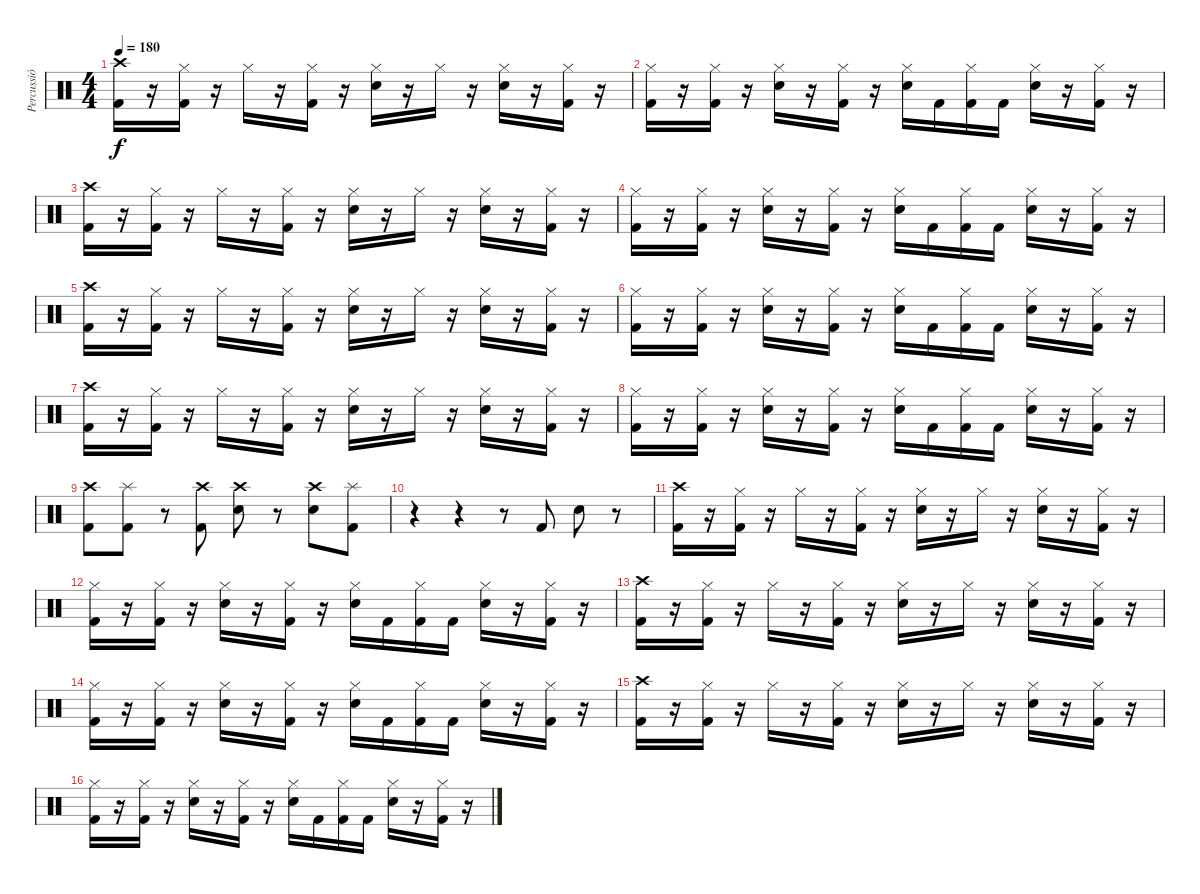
\track ("Percussió" "Percussió") {instrument percussion}
\staff {score}
\articulation defaults
\ts (4 4)
\tempo 180
\clef neutral
\ks c
("Crash high (hit)" "Kick (hit) 2").16{dy f} r.16 ("Hi-Hat (closed)" "Kick (hit) 2").16 r.16 "Hi-Hat (closed)".16 r.16 ("Hi-Hat (closed)" "Kick (hit) 2").16 r.16 ("Hi-Hat (closed)" "Electric Snare (hit)").16 r.16 "Hi-Hat (closed)".16 r.16 ("Hi-Hat (closed)" "Electric Snare (hit)").16 r.16 ("Hi-Hat (closed)" "Kick (hit) 2").16 r.16 |
("Hi-Hat (closed)" "Kick (hit) 2").16 r.16 ("Hi-Hat (closed)" "Kick (hit) 2").16 r.16 ("Hi-Hat (closed)" "Electric Snare (hit)").16 r.16 ("Hi-Hat (closed)" "Kick (hit) 2").16 r.16 ("Hi-Hat (closed)" "Electric Snare (hit)").16 "Kick (hit) 2".16 ("Hi-Hat (closed)" "Kick (hit) 2").16 "Kick (hit) 2".16 ("Hi-Hat (closed)" "Electric Snare (hit)").16 r.16 ("Hi-Hat (closed)" "Kick (hit) 2").16 r.16 |
("Crash high (hit)" "Kick (hit) 2").16 r.16 ("Hi-Hat (closed)" "Kick (hit) 2").16 r.16 "Hi-Hat (closed)".16 r.16 ("Hi-Hat (closed)" "Kick (hit) 2").16 r.16 ("Hi-Hat (closed)" "Electric Snare (hit)").16 r.16 "Hi-Hat (closed)".16 r.16 ("Hi-Hat (closed)" "Electric Snare (hit)").16 r.16 ("Hi-Hat (closed)" "Kick (hit) 2").16 r.16 |
("Hi-Hat (closed)" "Kick (hit) 2").16 r.16 ("Hi-Hat (closed)" "Kick (hit) 2").16 r.16 ("Hi-Hat (closed)" "Electric Snare (hit)").16 r.16 ("Hi-Hat (closed)" "Kick (hit) 2").16 r.16 ("Hi-Hat (closed)" "Electric Snare (hit)").16 "Kick (hit) 2".16 ("Hi-Hat (closed)" "Kick (hit) 2").16 "Kick (hit) 2".16 ("Hi-Hat (closed)" "Electric Snare (hit)").16 r.16 ("Hi-Hat (closed)" "Kick (hit) 2").16 r.16 |
("Crash high (hit)" "Kick (hit) 2").16 r.16 ("Hi-Hat (closed)" "Kick (hit) 2").16 r.16 "Hi-Hat (closed)".16 r.16 ("Hi-Hat (closed)" "Kick (hit) 2").16 r.16 ("Hi-Hat (closed)" "Electric Snare (hit)").16 r.16 "Hi-Hat (closed)".16 r.16 ("Hi-Hat (closed)" "Electric Snare (hit)").16 r.16 ("Hi-Hat (closed)" "Kick (hit) 2").16 r.16 |
("Hi-Hat (closed)" "Kick (hit) 2").16 r.16 ("Hi-Hat (closed)" "Kick (hit) 2").16 r.16 ("Hi-Hat (closed)" "Electric Snare (hit)").16 r.16 ("Hi-Hat (closed)" "Kick (hit) 2").16 r.16 ("Hi-Hat (closed)" "Electric Snare (hit)").16 "Kick (hit) 2".16 ("Hi-Hat (closed)" "Kick (hit) 2").16 "Kick (hit) 2".16 ("Hi-Hat (closed)" "Electric Snare (hit)").16 r.16 ("Hi-Hat (closed)" "Kick (hit) 2").16 r.16 |
("Crash high (hit)" "Kick (hit) 2").16 r.16 ("Hi-Hat (closed)" "Kick (hit) 2").16 r.16 "Hi-Hat (closed)".16 r.16 ("Hi-Hat (closed)" "Kick (hit) 2").16 r.16 ("Hi-Hat (closed)" "Electric Snare (hit)").16 r.16 "Hi-Hat (closed)".16 r.16 ("Hi-Hat (closed)" "Electric Snare (hit)").16 r.16 ("Hi-Hat (closed)" "Kick (hit) 2").16 r.16 |
("Hi-Hat (closed)" "Kick (hit) 2").16 r.16 ("Hi-Hat (closed)" "Kick (hit) 2").16 r.16 ("Hi-Hat (closed)" "Electric Snare (hit)").16 r.16 ("Hi-Hat (closed)" "Kick (hit) 2").16 r.16 ("Hi-Hat (closed)" "Electric Snare (hit)").16 "Kick (hit) 2".16 ("Hi-Hat (closed)" "Kick (hit) 2").16 "Kick (hit) 2".16 ("Hi-Hat (closed)" "Electric Snare (hit)").16 r.16 ("Hi-Hat (closed)" "Kick (hit) 2").16 r.16 |
("Crash high (hit)" "Kick (hit) 2").8 ("Splash (hit)" "Kick (hit) 2").8 r.8 ("Crash high (hit)" "Kick (hit) 2").8 ("Crash high (hit)" "Electric Snare (hit)").8 r.8 ("Crash high (hit)" "Electric Snare (hit)").8 ("Splash (hit)" "Kick (hit) 2").8 |
r.4 r.4 r.8 "Kick (hit) 2".8 "Electric Snare (hit)".8 r.8 |
("Crash high (hit)" "Kick (hit) 2").16 r.16 ("Hi-Hat (closed)" "Kick (hit) 2").16 r.16 "Hi-Hat (closed)".16 r.16 ("Hi-Hat (closed)" "Kick (hit) 2").16 r.16 ("Hi-Hat (closed)" "Electric Snare (hit)").16 r.16 "Hi-Hat (closed)".16 r.16 ("Hi-Hat (closed)" "Electric Snare (hit)").16 r.16 ("Hi-Hat (closed)" "Kick (hit) 2").16 r.16 |
("Hi-Hat (closed)" "Kick (hit) 2").16 r.16 ("Hi-Hat (closed)" "Kick (hit) 2").16 r.16 ("Hi-Hat (closed)" "Electric Snare (hit)").16 r.16 ("Hi-Hat (closed)" "Kick (hit) 2").16 r.16 ("Hi-Hat (closed)" "Electric Snare (hit)").16 "Kick (hit) 2".16 ("Hi-Hat (closed)" "Kick (hit) 2").16 "Kick (hit) 2".16 ("Hi-Hat (closed)" "Electric Snare (hit)").16 r.16 ("Hi-Hat (closed)" "Kick (hit) 2").16 r.16 |
("Crash high (hit)" "Kick (hit) 2").16 r.16 ("Hi-Hat (closed)" "Kick (hit) 2").16 r.16 "Hi-Hat (closed)".16 r.16 ("Hi-Hat (closed)" "Kick (hit) 2").16 r.16 ("Hi-Hat (closed)" "Electric Snare (hit)").16 r.16 "Hi-Hat (closed)".16 r.16 ("Hi-Hat (closed)" "Electric Snare (hit)").16 r.16 ("Hi-Hat (closed)" "Kick (hit) 2").16 r.16 |
("Hi-Hat (closed)" "Kick (hit) 2").16 r.16 ("Hi-Hat (closed)" "Kick (hit) 2").16 r.16 ("Hi-Hat (closed)" "Electric Snare (hit)").16 r.16 ("Hi-Hat (closed)" "Kick (hit) 2").16 r.16 ("Hi-Hat (closed)" "Electric Snare (hit)").16 "Kick (hit) 2".16 ("Hi-Hat (closed)" "Kick (hit) 2").16 "Kick (hit) 2".16 ("Hi-Hat (closed)" "Electric Snare (hit)").16 r.16 ("Hi-Hat (closed)" "Kick (hit) 2").16 r.16 |
("Crash high (hit)" "Kick (hit) 2").16 r.16 ("Hi-Hat (closed)" "Kick (hit) 2").16 r.16 "Hi-Hat (closed)".16 r.16 ("Hi-Hat (closed)" "Kick (hit) 2").16 r.16 ("Hi-Hat (closed)" "Electric Snare (hit)").16 r.16 "Hi-Hat (closed)".16 r.16 ("Hi-Hat (closed)" "Electric Snare (hit)").16 r.16 ("Hi-Hat (closed)" "Kick (hit) 2").16 r.16 |
("Hi-Hat (closed)" "Kick (hit) 2").16 r.16 ("Hi-Hat (closed)" "Kick (hit) 2").16 r.16 ("Hi-Hat (closed)" "Electric Snare (hit)").16 r.16 ("Hi-Hat (closed)" "Kick (hit) 2").16 r.16 ("Hi-Hat (closed)" "Electric Snare (hit)").16 "Kick (hit) 2".16 ("Hi-Hat (closed)" "Kick (hit) 2").16 "Kick (hit) 2".16 ("Hi-Hat (closed)" "Electric Snare (hit)").16 r.16 ("Hi-Hat (closed)" "Kick (hit) 2").16 r.16
